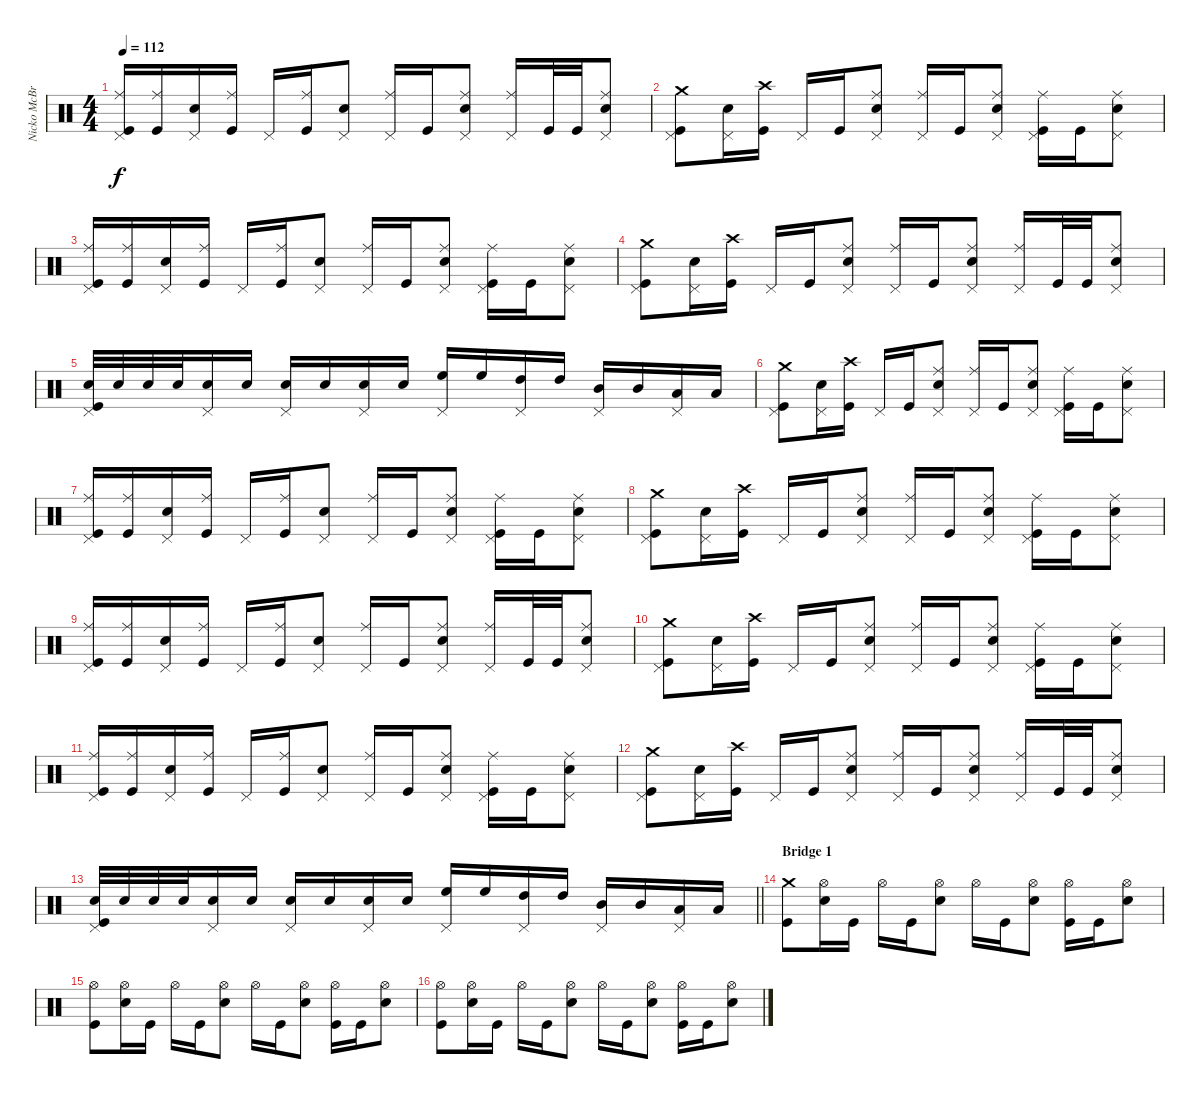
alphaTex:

\track ("Nicko McBrain" "Nicko McBr") {instrument percussion}
\staff {score}
\articulation defaults
\ts (4 4)
\tempo 112
\clef neutral
\ks c
("Ride (middle)" "Pedal Hi-Hat (hit)" "Kick (hit)").16{dy f} ("Ride (middle)" "Kick (hit)").16 ("Snare (hit) 2" "Pedal Hi-Hat (hit)").16 ("Ride (middle)" "Kick (hit)").16 "Pedal Hi-Hat (hit)".16 ("Ride (middle)" "Kick (hit)").16 ("Snare (hit) 2" "Pedal Hi-Hat (hit)").8 ("Ride (middle)" "Pedal Hi-Hat (hit)").16 "Kick (hit)".16 ("Ride (middle)" "Snare (hit) 2" "Pedal Hi-Hat (hit)").8 ("Ride (middle)" "Pedal Hi-Hat (hit)").16 "Kick (hit)".32 "Kick (hit)".32 ("Ride (middle)" "Snare (hit) 2" "Pedal Hi-Hat (hit)").8 |
("Crash medium (hit)" "Pedal Hi-Hat (hit)" "Kick (hit)").8 ("Snare (hit) 2" "Pedal Hi-Hat (hit)").16 ("Crash high (hit)" "Kick (hit)").16 "Pedal Hi-Hat (hit)".16 "Kick (hit)".16 ("Ride (middle)" "Snare (hit) 2" "Pedal Hi-Hat (hit)").8 ("Ride (middle)" "Pedal Hi-Hat (hit)").16 "Kick (hit)".16 ("Ride (middle)" "Snare (hit) 2" "Pedal Hi-Hat (hit)").8 ("Ride (middle)" "Pedal Hi-Hat (hit)" "Kick (hit)").16 "Kick (hit)".16 ("Ride (middle)" "Snare (hit) 2" "Pedal Hi-Hat (hit)").8 |
("Ride (middle)" "Pedal Hi-Hat (hit)" "Kick (hit)").16 ("Ride (middle)" "Kick (hit)").16 ("Snare (hit) 2" "Pedal Hi-Hat (hit)").16 ("Ride (middle)" "Kick (hit)").16 "Pedal Hi-Hat (hit)".16 ("Ride (middle)" "Kick (hit)").16 ("Snare (hit) 2" "Pedal Hi-Hat (hit)").8 ("Ride (middle)" "Pedal Hi-Hat (hit)").16 "Kick (hit)".16 ("Ride (middle)" "Snare (hit) 2" "Pedal Hi-Hat (hit)").8 ("Ride (middle)" "Pedal Hi-Hat (hit)" "Kick (hit)").16 "Kick (hit)".16 ("Ride (middle)" "Snare (hit) 2" "Pedal Hi-Hat (hit)").8 |
("Crash medium (hit)" "Pedal Hi-Hat (hit)" "Kick (hit)").8 ("Snare (hit) 2" "Pedal Hi-Hat (hit)").16 ("Crash high (hit)" "Kick (hit)").16 "Pedal Hi-Hat (hit)".16 "Kick (hit)".16 ("Ride (middle)" "Snare (hit) 2" "Pedal Hi-Hat (hit)").8 ("Ride (middle)" "Pedal Hi-Hat (hit)").16 "Kick (hit)".16 ("Ride (middle)" "Snare (hit) 2" "Pedal Hi-Hat (hit)").8 ("Ride (middle)" "Pedal Hi-Hat (hit)").16 "Kick (hit)".32 "Kick (hit)".32 ("Ride (middle)" "Snare (hit) 2" "Pedal Hi-Hat (hit)").8 |
("Snare (hit) 2" "Pedal Hi-Hat (hit)" "Kick (hit)").32 "Snare (hit) 2".32 "Snare (hit) 2".32 "Snare (hit) 2".32 ("Snare (hit) 2" "Pedal Hi-Hat (hit)").16 "Snare (hit) 2".16 ("Snare (hit) 2" "Pedal Hi-Hat (hit)").16 "Snare (hit) 2".16 ("Snare (hit) 2" "Pedal Hi-Hat (hit)").16 "Snare (hit) 2".16 ("High Floor Tom (hit)" "Pedal Hi-Hat (hit)").16 "High Floor Tom (hit)".16 ("High Tom (hit)" "Pedal Hi-Hat (hit)").16 "High Tom (hit)".16 ("Mid Tom (hit)" "Pedal Hi-Hat (hit)").16 "Mid Tom (hit)".16 ("Low Tom (hit)" "Pedal Hi-Hat (hit)").16 "Low Tom (hit)".16 |
("Crash medium (hit)" "Pedal Hi-Hat (hit)" "Kick (hit)").8 ("Snare (hit) 2" "Pedal Hi-Hat (hit)").16 ("Crash high (hit)" "Kick (hit)").16 "Pedal Hi-Hat (hit)".16 "Kick (hit)".16 ("Ride (middle)" "Snare (hit) 2" "Pedal Hi-Hat (hit)").8 ("Ride (middle)" "Pedal Hi-Hat (hit)").16 "Kick (hit)".16 ("Ride (middle)" "Snare (hit) 2" "Pedal Hi-Hat (hit)").8 ("Ride (middle)" "Pedal Hi-Hat (hit)" "Kick (hit)").16 "Kick (hit)".16 ("Ride (middle)" "Snare (hit) 2" "Pedal Hi-Hat (hit)").8 |
("Ride (middle)" "Pedal Hi-Hat (hit)" "Kick (hit)").16 ("Ride (middle)" "Kick (hit)").16 ("Snare (hit) 2" "Pedal Hi-Hat (hit)").16 ("Ride (middle)" "Kick (hit)").16 "Pedal Hi-Hat (hit)".16 ("Ride (middle)" "Kick (hit)").16 ("Snare (hit) 2" "Pedal Hi-Hat (hit)").8 ("Ride (middle)" "Pedal Hi-Hat (hit)").16 "Kick (hit)".16 ("Ride (middle)" "Snare (hit) 2" "Pedal Hi-Hat (hit)").8 ("Ride (middle)" "Pedal Hi-Hat (hit)" "Kick (hit)").16 "Kick (hit)".16 ("Ride (middle)" "Snare (hit) 2" "Pedal Hi-Hat (hit)").8 |
("Crash medium (hit)" "Pedal Hi-Hat (hit)" "Kick (hit)").8 ("Snare (hit) 2" "Pedal Hi-Hat (hit)").16 ("Crash high (hit)" "Kick (hit)").16 "Pedal Hi-Hat (hit)".16 "Kick (hit)".16 ("Ride (middle)" "Snare (hit) 2" "Pedal Hi-Hat (hit)").8 ("Ride (middle)" "Pedal Hi-Hat (hit)").16 "Kick (hit)".16 ("Ride (middle)" "Snare (hit) 2" "Pedal Hi-Hat (hit)").8 ("Ride (middle)" "Pedal Hi-Hat (hit)" "Kick (hit)").16 "Kick (hit)".16 ("Ride (middle)" "Snare (hit) 2" "Pedal Hi-Hat (hit)").8 |
("Ride (middle)" "Pedal Hi-Hat (hit)" "Kick (hit)").16 ("Ride (middle)" "Kick (hit)").16 ("Snare (hit) 2" "Pedal Hi-Hat (hit)").16 ("Ride (middle)" "Kick (hit)").16 "Pedal Hi-Hat (hit)".16 ("Ride (middle)" "Kick (hit)").16 ("Snare (hit) 2" "Pedal Hi-Hat (hit)").8 ("Ride (middle)" "Pedal Hi-Hat (hit)").16 "Kick (hit)".16 ("Ride (middle)" "Snare (hit) 2" "Pedal Hi-Hat (hit)").8 ("Ride (middle)" "Pedal Hi-Hat (hit)").16 "Kick (hit)".32 "Kick (hit)".32 ("Ride (middle)" "Snare (hit) 2" "Pedal Hi-Hat (hit)").8 |
("Crash medium (hit)" "Pedal Hi-Hat (hit)" "Kick (hit)").8 ("Snare (hit) 2" "Pedal Hi-Hat (hit)").16 ("Crash high (hit)" "Kick (hit)").16 "Pedal Hi-Hat (hit)".16 "Kick (hit)".16 ("Ride (middle)" "Snare (hit) 2" "Pedal Hi-Hat (hit)").8 ("Ride (middle)" "Pedal Hi-Hat (hit)").16 "Kick (hit)".16 ("Ride (middle)" "Snare (hit) 2" "Pedal Hi-Hat (hit)").8 ("Ride (middle)" "Pedal Hi-Hat (hit)" "Kick (hit)").16 "Kick (hit)".16 ("Ride (middle)" "Snare (hit) 2" "Pedal Hi-Hat (hit)").8 |
("Ride (middle)" "Pedal Hi-Hat (hit)" "Kick (hit)").16 ("Ride (middle)" "Kick (hit)").16 ("Snare (hit) 2" "Pedal Hi-Hat (hit)").16 ("Ride (middle)" "Kick (hit)").16 "Pedal Hi-Hat (hit)".16 ("Ride (middle)" "Kick (hit)").16 ("Snare (hit) 2" "Pedal Hi-Hat (hit)").8 ("Ride (middle)" "Pedal Hi-Hat (hit)").16 "Kick (hit)".16 ("Ride (middle)" "Snare (hit) 2" "Pedal Hi-Hat (hit)").8 ("Ride (middle)" "Pedal Hi-Hat (hit)" "Kick (hit)").16 "Kick (hit)".16 ("Ride (middle)" "Snare (hit) 2" "Pedal Hi-Hat (hit)").8 |
("Crash medium (hit)" "Pedal Hi-Hat (hit)" "Kick (hit)").8 ("Snare (hit) 2" "Pedal Hi-Hat (hit)").16 ("Crash high (hit)" "Kick (hit)").16 "Pedal Hi-Hat (hit)".16 "Kick (hit)".16 ("Ride (middle)" "Snare (hit) 2" "Pedal Hi-Hat (hit)").8 ("Ride (middle)" "Pedal Hi-Hat (hit)").16 "Kick (hit)".16 ("Ride (middle)" "Snare (hit) 2" "Pedal Hi-Hat (hit)").8 ("Ride (middle)" "Pedal Hi-Hat (hit)").16 "Kick (hit)".32 "Kick (hit)".32 ("Ride (middle)" "Snare (hit) 2" "Pedal Hi-Hat (hit)").8 |
\barLineRight lightlight
("Snare (hit) 2" "Pedal Hi-Hat (hit)" "Kick (hit)").32 "Snare (hit) 2".32 "Snare (hit) 2".32 "Snare (hit) 2".32 ("Snare (hit) 2" "Pedal Hi-Hat (hit)").16 "Snare (hit) 2".16 ("Snare (hit) 2" "Pedal Hi-Hat (hit)").16 "Snare (hit) 2".16 ("Snare (hit) 2" "Pedal Hi-Hat (hit)").16 "Snare (hit) 2".16 ("High Floor Tom (hit)" "Pedal Hi-Hat (hit)").16 "High Floor Tom (hit)".16 ("High Tom (hit)" "Pedal Hi-Hat (hit)").16 "High Tom (hit)".16 ("Mid Tom (hit)" "Pedal Hi-Hat (hit)").16 "Mid Tom (hit)".16 ("Low Tom (hit)" "Pedal Hi-Hat (hit)").16 "Low Tom (hit)".16 |
\section ("" "Bridge 1")
("Crash medium (hit)" "Kick (hit)").8 ("Hi-Hat (open)" "Snare (hit) 2").16 "Kick (hit)".16 "Hi-Hat (open)".16 "Kick (hit)".16 ("Hi-Hat (open)" "Snare (hit) 2").8 "Hi-Hat (open)".16 "Kick (hit)".16 ("Hi-Hat (open)" "Snare (hit) 2").8 ("Hi-Hat (open)" "Kick (hit)").16 "Kick (hit)".16 ("Hi-Hat (open)" "Snare (hit) 2").8 |
("Hi-Hat (open)" "Kick (hit)").8 ("Hi-Hat (open)" "Snare (hit) 2").16 "Kick (hit)".16 "Hi-Hat (open)".16 "Kick (hit)".16 ("Hi-Hat (open)" "Snare (hit) 2").8 "Hi-Hat (open)".16 "Kick (hit)".16 ("Hi-Hat (open)" "Snare (hit) 2").8 ("Hi-Hat (open)" "Kick (hit)").16 "Kick (hit)".16 ("Hi-Hat (open)" "Snare (hit) 2").8 |
("Hi-Hat (open)" "Kick (hit)").8 ("Hi-Hat (open)" "Snare (hit) 2").16 "Kick (hit)".16 "Hi-Hat (open)".16 "Kick (hit)".16 ("Hi-Hat (open)" "Snare (hit) 2").8 "Hi-Hat (open)".16 "Kick (hit)".16 ("Hi-Hat (open)" "Snare (hit) 2").8 ("Hi-Hat (open)" "Kick (hit)").16 "Kick (hit)".16 ("Hi-Hat (open)" "Snare (hit) 2").8
